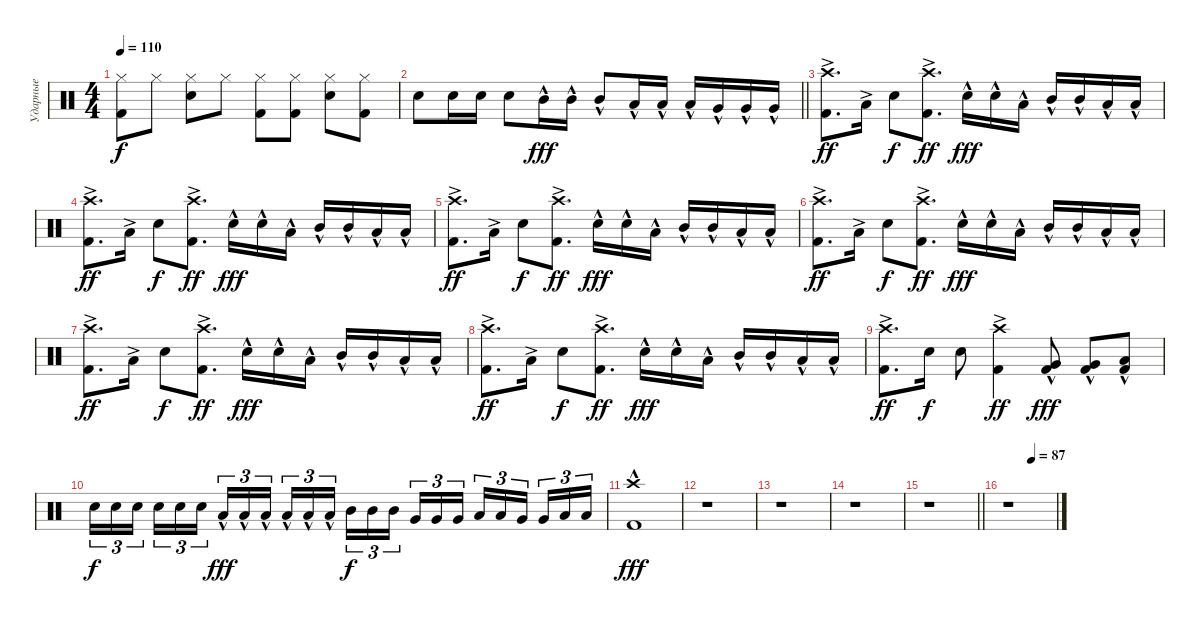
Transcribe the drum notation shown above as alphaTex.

\track ("Ударные" "Ударные") {instrument percussion}
\staff {score}
\articulation defaults
\ts (4 4)
\tempo 110
\clef neutral
\ks c
("Kick (hit) 2" "Hi-Hat (closed)").8{dy f} "Hi-Hat (closed)".8 ("Snare (hit) 2" "Hi-Hat (closed)").8 "Hi-Hat (closed)".8 ("Kick (hit) 2" "Hi-Hat (closed)").8 ("Kick (hit) 2" "Hi-Hat (closed)").8 ("Snare (hit) 2" "Hi-Hat (closed)").8 ("Kick (hit) 2" "Hi-Hat (closed)").8 |
\barLineRight lightlight "Snare (hit) 2".8 "Snare (hit) 2".16 "Snare (hit) 2".16 "Snare (hit) 2".8 "Mid Tom (hit)"{hac}.16{dy fff} "Mid Tom (hit)"{hac}.16 "Mid Tom (hit)"{hac}.8 "Low Tom (hit)"{hac}.16 "Low Tom (hit)"{hac}.16 "Low Tom (hit)"{hac}.16 "Very Low Tom (hit)"{hac}.16 "Very Low Tom (hit)"{hac}.16 "Very Low Tom (hit)"{hac}.16
|
("Kick (hit) 2" "Crash high (hit)"{ac}).8{d dy ff} "Low Tom (hit)"{ac}.16 "Snare (hit) 2".8{dy f} ("Kick (hit) 2" "Crash high (hit)"{ac}).8{d dy ff} "Snare (hit) 2"{hac}.16{dy fff} "Snare (hit) 2"{hac}.16 "Low Tom (hit)"{hac}.16 "Mid Tom (hit)"{hac}.16 "Mid Tom (hit)"{hac}.16 "Low Tom (hit)"{hac}.16 "Low Tom (hit)"{hac}.16 |
("Kick (hit) 2" "Crash high (hit)"{ac}).8{d dy ff} "Low Tom (hit)"{ac}.16 "Snare (hit) 2".8{dy f} ("Kick (hit) 2" "Crash high (hit)"{ac}).8{d dy ff} "Snare (hit) 2"{hac}.16{dy fff} "Snare (hit) 2"{hac}.16 "Low Tom (hit)"{hac}.16 "Mid Tom (hit)"{hac}.16 "Mid Tom (hit)"{hac}.16 "Low Tom (hit)"{hac}.16 "Low Tom (hit)"{hac}.16 |
("Kick (hit) 2" "Crash high (hit)"{ac}).8{d dy ff} "Low Tom (hit)"{ac}.16 "Snare (hit) 2".8{dy f} ("Kick (hit) 2" "Crash high (hit)"{ac}).8{d dy ff} "Snare (hit) 2"{hac}.16{dy fff} "Snare (hit) 2"{hac}.16 "Low Tom (hit)"{hac}.16 "Mid Tom (hit)"{hac}.16 "Mid Tom (hit)"{hac}.16 "Low Tom (hit)"{hac}.16 "Low Tom (hit)"{hac}.16 |
("Kick (hit) 2" "Crash high (hit)"{ac}).8{d dy ff} "Low Tom (hit)"{ac}.16 "Snare (hit) 2".8{dy f} ("Kick (hit) 2" "Crash high (hit)"{ac}).8{d dy ff} "Snare (hit) 2"{hac}.16{dy fff} "Snare (hit) 2"{hac}.16 "Low Tom (hit)"{hac}.16 "Mid Tom (hit)"{hac}.16 "Mid Tom (hit)"{hac}.16 "Low Tom (hit)"{hac}.16 "Low Tom (hit)"{hac}.16 |
("Kick (hit) 2" "Crash high (hit)"{ac}).8{d dy ff} "Low Tom (hit)"{ac}.16 "Snare (hit) 2".8{dy f} ("Kick (hit) 2" "Crash high (hit)"{ac}).8{d dy ff} "Snare (hit) 2"{hac}.16{dy fff} "Snare (hit) 2"{hac}.16 "Low Tom (hit)"{hac}.16 "Mid Tom (hit)"{hac}.16 "Mid Tom (hit)"{hac}.16 "Low Tom (hit)"{hac}.16 "Low Tom (hit)"{hac}.16 |
("Kick (hit) 2" "Crash high (hit)"{ac}).8{d dy ff} "Low Tom (hit)"{ac}.16 "Snare (hit) 2".8{dy f} ("Kick (hit) 2" "Crash high (hit)"{ac}).8{d dy ff} "Snare (hit) 2"{hac}.16{dy fff} "Snare (hit) 2"{hac}.16 "Low Tom (hit)"{hac}.16 "Mid Tom (hit)"{hac}.16 "Mid Tom (hit)"{hac}.16 "Low Tom (hit)"{hac}.16 "Low Tom (hit)"{hac}.16 |
("Kick (hit) 2" "Crash high (hit)"{ac}).8{d dy ff} "Snare (hit) 2".16{dy f} "Snare (hit) 2".8 ("Kick (hit) 2" "Crash high (hit)"{ac}).4{dy ff} ("Kick (hit) 2" "Very Low Tom (hit)"{hac}).8{dy fff} ("Kick (hit) 2" "Very Low Tom (hit)"{hac}).8 ("Kick (hit) 2" "Low Floor Tom (hit)"{hac}).8 |
"Snare (hit) 2".16{tu (3 2) dy f} "Snare (hit) 2".16{tu (3 2)} "Snare (hit) 2".16{tu (3 2) beam splitsecondary} "Snare (hit) 2".16{tu (3 2)} "Snare (hit) 2".16{tu (3 2)} "Snare (hit) 2".16{tu (3 2)} "Low Tom (hit)"{hac}.16{tu (3 2) dy fff} "Low Tom (hit)"{hac}.16{tu (3 2)} "Low Tom (hit)"{hac}.16{tu (3 2) beam splitsecondary} "Low Tom (hit)"{hac}.16{tu (3 2)} "Low Tom (hit)"{hac}.16{tu (3 2)} "Low Tom (hit)"{hac}.16{tu (3 2)} "Mid Tom (hit)".16{tu (3 2) dy f} "Mid Tom (hit)".16{tu (3 2)} "Mid Tom (hit)".16{tu (3 2) beam splitsecondary} "Very Low Tom (hit)".16{tu (3 2)} "Very Low Tom (hit)".16{tu (3 2)} "Very Low Tom (hit)".16{tu (3 2)} "Low Tom (hit)".16{tu (3 2)} "Low Tom (hit)".16{tu (3 2)} "Very Low Tom (hit)".16{tu (3 2) beam splitsecondary} "Very Low Tom (hit)".16{tu (3 2)} "Low Floor Tom (hit)".16{tu (3 2)} "Low Floor Tom (hit)".16{tu (3 2)} |
("Kick (hit) 2" "Crash high (hit)"{hac}).1{dy fff} |
r.1 |
r.1 |
r.1 |
\barLineRight lightlight
r.1 |
\tempo (87 0.5)
r.1
